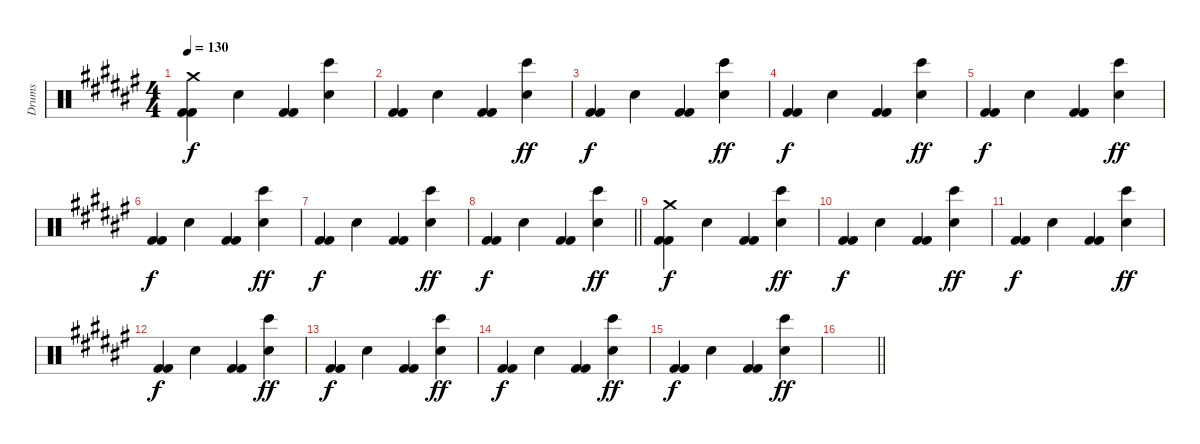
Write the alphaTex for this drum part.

\track ("Drums" "Drums") {instrument percussion}
\staff {score}
\articulation defaults
\ts (4 4)
\tempo 130
\clef neutral
\ks d#minor
("Crash medium (hit)" "Kick (hit) 2" "Kick (hit) 2").4{dy f} "Snare (hit) 2".4 ("Kick (hit) 2" "Kick (hit) 2").4 ("Bongo High (hit)" "Snare (hit) 2").4 |
("Kick (hit) 2" "Kick (hit) 2").4 "Snare (hit) 2".4 ("Kick (hit) 2" "Kick (hit) 2").4 ("Bongo High (hit)" "Snare (hit) 2").4{dy ff} |
("Kick (hit) 2" "Kick (hit) 2").4{dy f} "Snare (hit) 2".4 ("Kick (hit) 2" "Kick (hit) 2").4 ("Bongo High (hit)" "Snare (hit) 2").4{dy ff} |
("Kick (hit) 2" "Kick (hit) 2").4{dy f} "Snare (hit) 2".4 ("Kick (hit) 2" "Kick (hit) 2").4 ("Bongo High (hit)" "Snare (hit) 2").4{dy ff} |
("Kick (hit) 2" "Kick (hit) 2").4{dy f} "Snare (hit) 2".4 ("Kick (hit) 2" "Kick (hit) 2").4 ("Bongo High (hit)" "Snare (hit) 2").4{dy ff} |
("Kick (hit) 2" "Kick (hit) 2").4{dy f} "Snare (hit) 2".4 ("Kick (hit) 2" "Kick (hit) 2").4 ("Bongo High (hit)" "Snare (hit) 2").4{dy ff} |
("Kick (hit) 2" "Kick (hit) 2").4{dy f} "Snare (hit) 2".4 ("Kick (hit) 2" "Kick (hit) 2").4 ("Bongo High (hit)" "Snare (hit) 2").4{dy ff} |
\barLineRight lightlight
("Kick (hit) 2" "Kick (hit) 2").4{dy f} "Snare (hit) 2".4 ("Kick (hit) 2" "Kick (hit) 2").4 ("Bongo High (hit)" "Snare (hit) 2").4{dy ff} |
("Crash medium (hit)" "Kick (hit) 2" "Kick (hit) 2").4{dy f} "Snare (hit) 2".4 ("Kick (hit) 2" "Kick (hit) 2").4 ("Bongo High (hit)" "Snare (hit) 2").4{dy ff} |
("Kick (hit) 2" "Kick (hit) 2").4{dy f} "Snare (hit) 2".4 ("Kick (hit) 2" "Kick (hit) 2").4 ("Bongo High (hit)" "Snare (hit) 2").4{dy ff} |
("Kick (hit) 2" "Kick (hit) 2").4{dy f} "Snare (hit) 2".4 ("Kick (hit) 2" "Kick (hit) 2").4 ("Bongo High (hit)" "Snare (hit) 2").4{dy ff} |
("Kick (hit) 2" "Kick (hit) 2").4{dy f} "Snare (hit) 2".4 ("Kick (hit) 2" "Kick (hit) 2").4 ("Bongo High (hit)" "Snare (hit) 2").4{dy ff} |
("Kick (hit) 2" "Kick (hit) 2").4{dy f} "Snare (hit) 2".4 ("Kick (hit) 2" "Kick (hit) 2").4 ("Bongo High (hit)" "Snare (hit) 2").4{dy ff} |
("Kick (hit) 2" "Kick (hit) 2").4{dy f} "Snare (hit) 2".4 ("Kick (hit) 2" "Kick (hit) 2").4 ("Bongo High (hit)" "Snare (hit) 2").4{dy ff} |
("Kick (hit) 2" "Kick (hit) 2").4{dy f} "Snare (hit) 2".4 ("Kick (hit) 2" "Kick (hit) 2").4 ("Bongo High (hit)" "Snare (hit) 2").4{dy ff} |
\barLineRight lightlight
